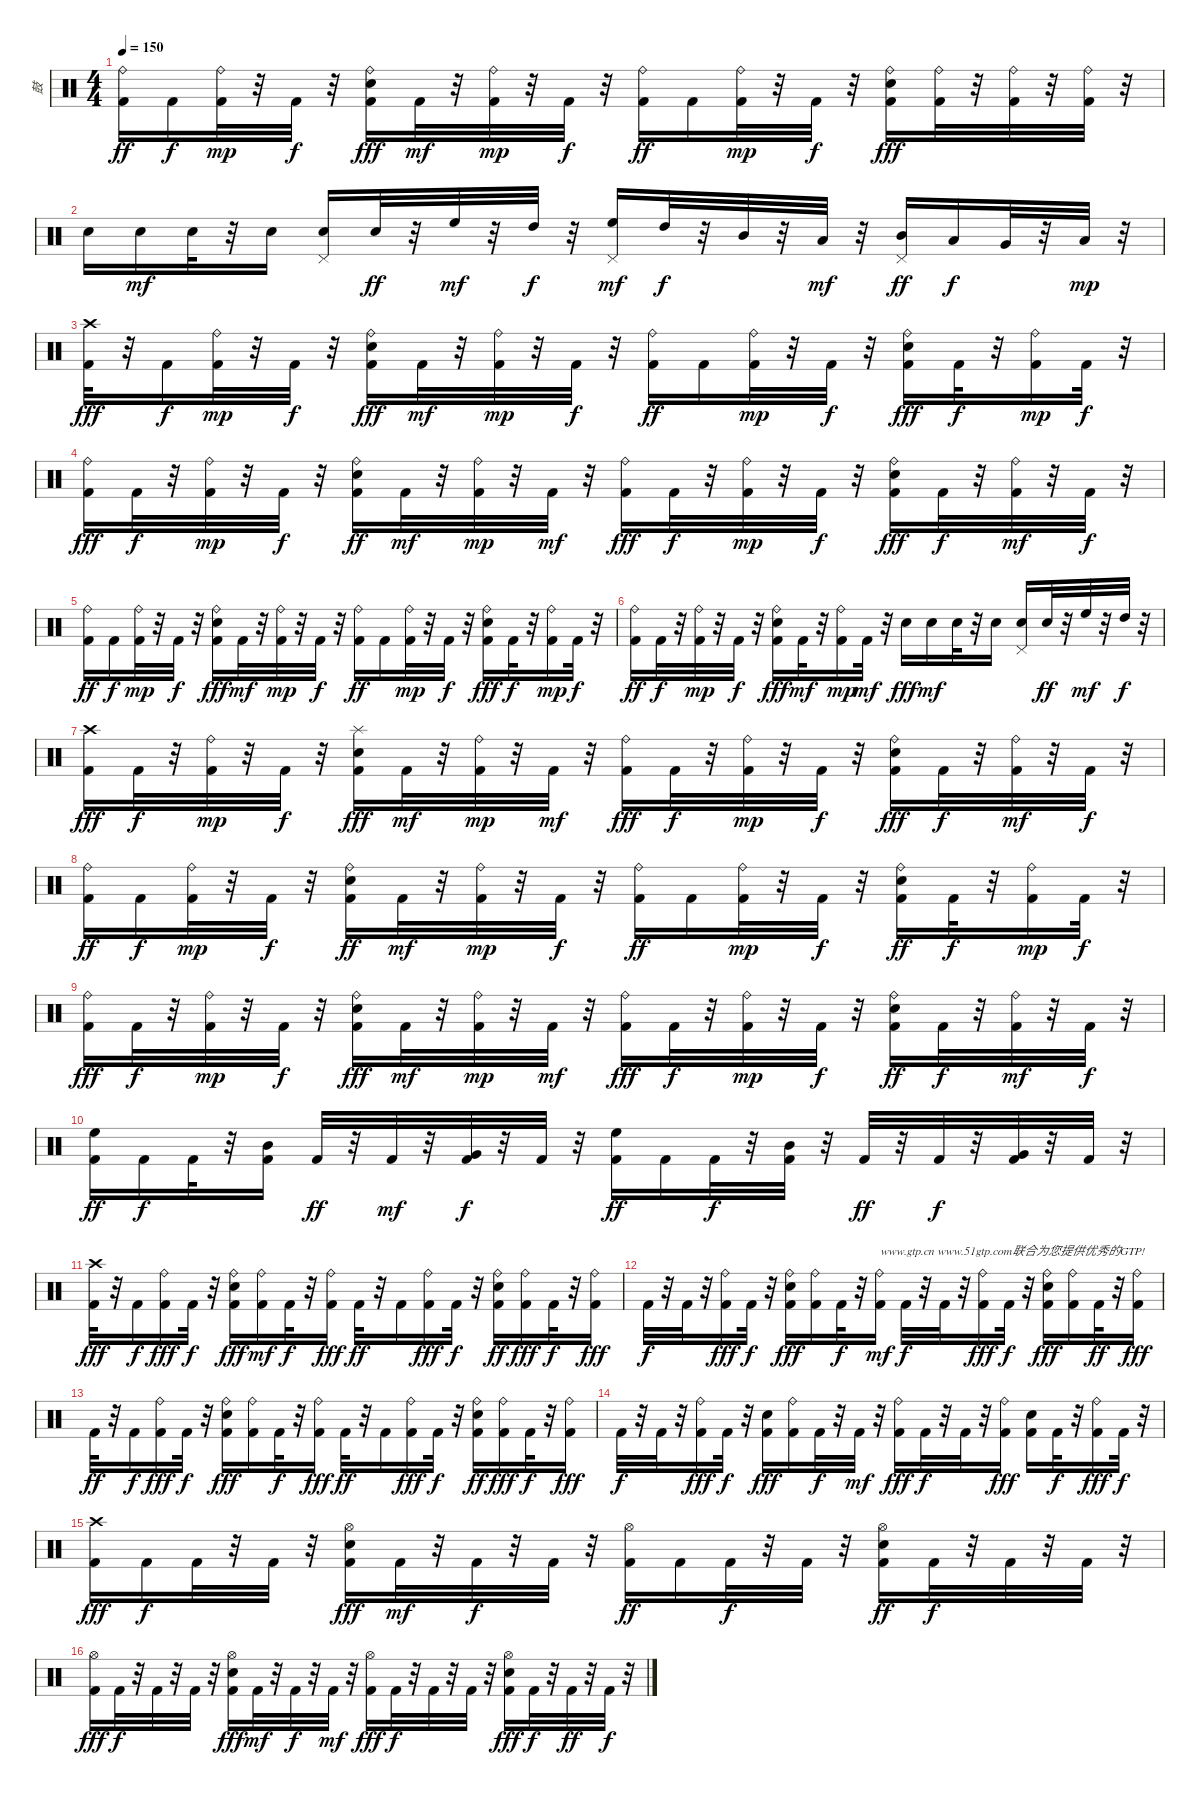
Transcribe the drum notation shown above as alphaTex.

\track ("鼓" "鼓") {instrument percussion}
\staff {score}
\articulation defaults
\ts (4 4)
\tempo 150
\clef neutral
\ks c
("Ride (bell)" "Kick (hit) 2").16{dy ff} "Kick (hit) 2".16{dy f} ("Ride (bell)" "Kick (hit) 2").32{dy mp} r.32 "Kick (hit) 2".32{dy f} r.32 ("Kick (hit) 2" "Electric Snare (hit)" "Ride (bell)").16{dy fff} "Kick (hit) 2".32{dy mf} r.32 ("Kick (hit) 2" "Ride (bell)").32{dy mp} r.32 "Kick (hit) 2".32{dy f} r.32 ("Ride (bell)" "Kick (hit) 2").16{dy ff} "Kick (hit) 2".16 ("Ride (bell)" "Kick (hit) 2").32{dy mp} r.32 "Kick (hit) 2".32{dy f} r.32 ("Electric Snare (hit)" "Kick (hit) 2" "Ride (bell)").16{dy fff} ("Kick (hit) 2" "Ride (bell)").32 r.32 ("Ride (bell)" "Kick (hit) 2").32 r.32 ("Ride (bell)" "Kick (hit) 2").32 r.32 |
"Electric Snare (hit)".16 "Electric Snare (hit)".16{dy mf} "Electric Snare (hit)".32 r.32 "Electric Snare (hit)".16 ("Electric Snare (hit)" "Pedal Hi-Hat (hit)").16 "Electric Snare (hit)".32{dy ff} r.32 "High Floor Tom (hit)".32{dy mf} r.32 "High Tom (hit)".32{dy f} r.32 ("High Floor Tom (hit)" "Pedal Hi-Hat (hit)").16{dy mf} "High Tom (hit)".32{dy f} r.32 "Mid Tom (hit)".32 r.32 "Low Tom (hit)".32{dy mf} r.32 ("Pedal Hi-Hat (hit)" "Mid Tom (hit)").16{dy ff} "Low Tom (hit)".16{dy f} "Very Low Tom (hit)".32 r.32 "Low Floor Tom (hit)".32{dy mp} r.32 |
("Kick (hit) 2" "Crash high (hit)").32{dy fff} r.32 "Kick (hit) 2".16{dy f} ("Ride (bell)" "Kick (hit) 2").32{dy mp} r.32 "Kick (hit) 2".32{dy f} r.32 ("Electric Snare (hit)" "Kick (hit) 2" "Ride (bell)").16{dy fff} "Kick (hit) 2".32{dy mf} r.32 ("Kick (hit) 2" "Ride (bell)").32{dy mp} r.32 "Kick (hit) 2".32{dy f} r.32 ("Kick (hit) 2" "Ride (bell)").16{dy ff} "Kick (hit) 2".16 ("Ride (bell)" "Kick (hit) 2").32{dy mp} r.32 "Kick (hit) 2".32{dy f} r.32 ("Kick (hit) 2" "Ride (bell)" "Electric Snare (hit)").16{dy fff} "Kick (hit) 2".32{dy f} r.32 ("Ride (bell)" "Kick (hit) 2").16{dy mp} "Kick (hit) 2".32{dy f} r.32 |
("Ride (bell)" "Kick (hit) 2").16{dy fff} "Kick (hit) 2".32{dy f} r.32 ("Ride (bell)" "Kick (hit) 2").32{dy mp} r.32 "Kick (hit) 2".32{dy f} r.32 ("Kick (hit) 2" "Electric Snare (hit)" "Ride (bell)").16{dy ff} "Kick (hit) 2".32{dy mf} r.32 ("Ride (bell)" "Kick (hit) 2").32{dy mp} r.32 "Kick (hit) 2".32{dy mf} r.32 ("Kick (hit) 2" "Ride (bell)").16{dy fff} "Kick (hit) 2".32{dy f} r.32 ("Ride (bell)" "Kick (hit) 2").32{dy mp} r.32 "Kick (hit) 2".32{dy f} r.32 ("Ride (bell)" "Electric Snare (hit)" "Kick (hit) 2").16{dy fff} "Kick (hit) 2".32{dy f} r.32 ("Kick (hit) 2" "Ride (bell)").32{dy mf} r.32 "Kick (hit) 2".32{dy f} r.32 |
("Kick (hit) 2" "Ride (bell)").16{dy ff} "Kick (hit) 2".16{dy f} ("Ride (bell)" "Kick (hit) 2").32{dy mp} r.32 "Kick (hit) 2".32{dy f} r.32 ("Electric Snare (hit)" "Kick (hit) 2" "Ride (bell)").16{dy fff} "Kick (hit) 2".32{dy mf} r.32 ("Ride (bell)" "Kick (hit) 2").32{dy mp} r.32 "Kick (hit) 2".32{dy f} r.32 ("Ride (bell)" "Kick (hit) 2").16{dy ff} "Kick (hit) 2".16 ("Kick (hit) 2" "Ride (bell)").32{dy mp} r.32 "Kick (hit) 2".32{dy f} r.32 ("Kick (hit) 2" "Ride (bell)" "Electric Snare (hit)").16{dy fff} "Kick (hit) 2".32{dy f} r.32 ("Ride (bell)" "Kick (hit) 2").16{dy mp} "Kick (hit) 2".32{dy f} r.32 |
("Ride (bell)" "Kick (hit) 2").16{dy ff} "Kick (hit) 2".32{dy f} r.32 ("Ride (bell)" "Kick (hit) 2").32{dy mp} r.32 "Kick (hit) 2".32{dy f} r.32 ("Ride (bell)" "Electric Snare (hit)" "Kick (hit) 2").16{dy fff} "Kick (hit) 2".32{dy mf} r.32 ("Ride (bell)" "Kick (hit) 2").16{dy mp} "Kick (hit) 2".32{dy mf} r.32 "Electric Snare (hit)".16{dy fff} "Electric Snare (hit)".16{dy mf} "Electric Snare (hit)".32 r.32 "Electric Snare (hit)".16 ("Electric Snare (hit)" "Pedal Hi-Hat (hit)").16 "Electric Snare (hit)".32{dy ff} r.32 "High Floor Tom (hit)".32{dy mf} r.32 "High Tom (hit)".32{dy f} r.32 |
("Crash high (hit)" "Kick (hit) 2").16{dy fff} "Kick (hit) 2".32{dy f} r.32 ("Kick (hit) 2" "Ride (bell)").32{dy mp} r.32 "Kick (hit) 2".32{dy f} r.32 ("Kick (hit) 2" "Splash (hit)" "Electric Snare (hit)").16{dy fff} "Kick (hit) 2".32{dy mf} r.32 ("Kick (hit) 2" "Ride (bell)").32{dy mp} r.32 "Kick (hit) 2".32{dy mf} r.32 ("Kick (hit) 2" "Ride (bell)").16{dy fff} "Kick (hit) 2".32{dy f} r.32 ("Ride (bell)" "Kick (hit) 2").32{dy mp} r.32 "Kick (hit) 2".32{dy f} r.32 ("Ride (bell)" "Kick (hit) 2" "Electric Snare (hit)").16{dy fff} "Kick (hit) 2".32{dy f} r.32 ("Kick (hit) 2" "Ride (bell)").32{dy mf} r.32 "Kick (hit) 2".32{dy f} r.32 |
("Ride (bell)" "Kick (hit) 2").16{dy ff} "Kick (hit) 2".16{dy f} ("Kick (hit) 2" "Ride (bell)").32{dy mp} r.32 "Kick (hit) 2".32{dy f} r.32 ("Ride (bell)" "Electric Snare (hit)" "Kick (hit) 2").16{dy ff} "Kick (hit) 2".32{dy mf} r.32 ("Kick (hit) 2" "Ride (bell)").32{dy mp} r.32 "Kick (hit) 2".32{dy f} r.32 ("Kick (hit) 2" "Ride (bell)").16{dy ff} "Kick (hit) 2".16 ("Ride (bell)" "Kick (hit) 2").32{dy mp} r.32 "Kick (hit) 2".32{dy f} r.32 ("Ride (bell)" "Electric Snare (hit)" "Kick (hit) 2").16{dy ff} "Kick (hit) 2".32{dy f} r.32 ("Ride (bell)" "Kick (hit) 2").16{dy mp} "Kick (hit) 2".32{dy f} r.32 |
("Ride (bell)" "Kick (hit) 2").16{dy fff} "Kick (hit) 2".32{dy f} r.32 ("Ride (bell)" "Kick (hit) 2").32{dy mp} r.32 "Kick (hit) 2".32{dy f} r.32 ("Ride (bell)" "Kick (hit) 2" "Electric Snare (hit)").16{dy fff} "Kick (hit) 2".32{dy mf} r.32 ("Kick (hit) 2" "Ride (bell)").32{dy mp} r.32 "Kick (hit) 2".32{dy mf} r.32 ("Ride (bell)" "Kick (hit) 2").16{dy fff} "Kick (hit) 2".32{dy f} r.32 ("Ride (bell)" "Kick (hit) 2").32{dy mp} r.32 "Kick (hit) 2".32{dy f} r.32 ("Electric Snare (hit)" "Ride (bell)" "Kick (hit) 2").16{dy ff} "Kick (hit) 2".32{dy f} r.32 ("Kick (hit) 2" "Ride (bell)").32{dy mf} r.32 "Kick (hit) 2".32{dy f} r.32 |
("Kick (hit) 2" "High Floor Tom (hit)").16{dy ff} "Kick (hit) 2".16{dy f} "Kick (hit) 2".32 r.32 ("Mid Tom (hit)" "Kick (hit) 2").16 "Kick (hit) 2".32{dy ff} r.32 "Kick (hit) 2".32{dy mf} r.32 ("Very Low Tom (hit)" "Kick (hit) 2").32{dy f} r.32 "Kick (hit) 2".32 r.32 ("Kick (hit) 2" "High Floor Tom (hit)").16{dy ff} "Kick (hit) 2".16 "Kick (hit) 2".32{dy f} r.32 ("Kick (hit) 2" "Mid Tom (hit)").32 r.32 "Kick (hit) 2".32{dy ff} r.32 "Kick (hit) 2".32{dy f} r.32 ("Very Low Tom (hit)" "Kick (hit) 2").32 r.32 "Kick (hit) 2".32 r.32 |
("Kick (hit) 2" "Crash high (hit)").32{dy fff} r.32 "Kick (hit) 2".16{dy f} ("Kick (hit) 2" "Ride (bell)").16{dy fff} "Kick (hit) 2".32{dy f} r.32 ("Ride (bell)" "Kick (hit) 2" "Electric Snare (hit)").16{dy fff} ("Ride (bell)" "Kick (hit) 2").16{dy mf} "Kick (hit) 2".32{dy f} r.32 ("Ride (bell)" "Kick (hit) 2").16{dy fff} "Kick (hit) 2".32{dy ff} r.32 "Kick (hit) 2".16 ("Ride (bell)" "Kick (hit) 2").16{dy fff} "Kick (hit) 2".32{dy f} r.32 ("Ride (bell)" "Electric Snare (hit)" "Kick (hit) 2").16{dy ff} ("Ride (bell)" "Kick (hit) 2").16{dy fff} "Kick (hit) 2".32{dy f} r.32 ("Ride (bell)" "Kick (hit) 2").16{dy fff} |
"Kick (hit) 2".32{dy f} r.32 "Kick (hit) 2".32 r.32 ("Kick (hit) 2" "Ride (bell)").16{dy fff} "Kick (hit) 2".32{dy f} r.32 ("Electric Snare (hit)" "Ride (bell)" "Kick (hit) 2").16{dy fff} ("Kick (hit) 2" "Ride (bell)").16 "Kick (hit) 2".32{dy f} r.32 ("Ride (bell)" "Kick (hit) 2").16{txt "www.gtp.cn www.51gtp.com联合为您提供优秀的GTP!" dy mf} "Kick (hit) 2".32{dy f} r.32 "Kick (hit) 2".32 r.32 ("Kick (hit) 2" "Ride (bell)").16{dy fff} "Kick (hit) 2".32{dy f} r.32 ("Electric Snare (hit)" "Ride (bell)" "Kick (hit) 2").16{dy fff} ("Kick (hit) 2" "Ride (bell)").16 "Kick (hit) 2".32{dy ff} r.32 ("Ride (bell)" "Kick (hit) 2").16{dy fff} |
"Kick (hit) 2".32{dy ff} r.32 "Kick (hit) 2".16{dy f} ("Kick (hit) 2" "Ride (bell)").16{dy fff} "Kick (hit) 2".32{dy f} r.32 ("Kick (hit) 2" "Ride (bell)" "Electric Snare (hit)").16{dy fff} ("Kick (hit) 2" "Ride (bell)").16 "Kick (hit) 2".32{dy f} r.32 ("Kick (hit) 2" "Ride (bell)").16{dy fff} "Kick (hit) 2".32{dy ff} r.32 "Kick (hit) 2".16 ("Kick (hit) 2" "Ride (bell)").16{dy fff} "Kick (hit) 2".32{dy f} r.32 ("Ride (bell)" "Electric Snare (hit)" "Kick (hit) 2").16{dy ff} ("Ride (bell)" "Kick (hit) 2").16{dy fff} "Kick (hit) 2".32{dy f} r.32 ("Ride (bell)" "Kick (hit) 2").16{dy fff} |
"Kick (hit) 2".32{dy f} r.32 "Kick (hit) 2".32 r.32 ("Kick (hit) 2" "Ride (bell)").16{dy fff} "Kick (hit) 2".32{dy f} r.32 ("Kick (hit) 2" "Electric Snare (hit)").16{dy fff} ("Kick (hit) 2" "Ride (bell)").16 "Kick (hit) 2".32{dy f} r.32 "Kick (hit) 2".32{dy mf} r.32 ("Ride (bell)" "Kick (hit) 2").16{dy fff} "Kick (hit) 2".32{dy f} r.32 "Kick (hit) 2".32 r.32 ("Kick (hit) 2" "Ride (bell)").16{dy fff} ("Electric Snare (hit)" "Kick (hit) 2").16 "Kick (hit) 2".32{dy f} r.32 ("Kick (hit) 2" "Ride (bell)").16{dy fff} "Kick (hit) 2".32{dy f} r.32 |
("Kick (hit) 2" "Crash high (hit)").16{dy fff} "Kick (hit) 2".16{dy f} "Kick (hit) 2".32 r.32 "Kick (hit) 2".32 r.32 ("Hi-Hat (open)" "Kick (hit) 2" "Electric Snare (hit)").16{dy fff} "Kick (hit) 2".32{dy mf} r.32 "Kick (hit) 2".32{dy f} r.32 "Kick (hit) 2".32 r.32 ("Hi-Hat (open)" "Kick (hit) 2").16{dy ff} "Kick (hit) 2".16 "Kick (hit) 2".32{dy f} r.32 "Kick (hit) 2".32 r.32 ("Hi-Hat (open)" "Electric Snare (hit)" "Kick (hit) 2").16{dy ff} "Kick (hit) 2".32{dy f} r.32 "Kick (hit) 2".32 r.32 "Kick (hit) 2".32 r.32 |
("Kick (hit) 2" "Hi-Hat (open)").16{dy fff} "Kick (hit) 2".32{dy f} r.32 "Kick (hit) 2".32 r.32 "Kick (hit) 2".32 r.32 ("Hi-Hat (open)" "Electric Snare (hit)" "Kick (hit) 2").16{dy fff} "Kick (hit) 2".32{dy mf} r.32 "Kick (hit) 2".32{dy f} r.32 "Kick (hit) 2".32{dy mf} r.32 ("Kick (hit) 2" "Hi-Hat (open)").16{dy fff} "Kick (hit) 2".32{dy f} r.32 "Kick (hit) 2".32 r.32 "Kick (hit) 2".32 r.32 ("Electric Snare (hit)" "Kick (hit) 2" "Hi-Hat (open)").16{dy fff} "Kick (hit) 2".32{dy f} r.32 "Kick (hit) 2".32{dy ff} r.32 "Kick (hit) 2".32{dy f} r.32
